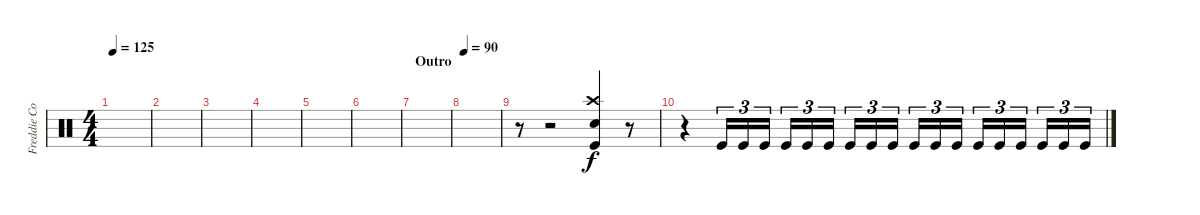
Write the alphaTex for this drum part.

\track ("Freddie Coury - Outro" "Freddie Co") {instrument percussion}
\staff {score}
\articulation defaults
\ts (4 4)
\tempo 125
\clef neutral
\ks c
|
|
|
|
|
|
\section ("" "Outro")
|
\tempo 90
|
r.8 r.2 ("Snare (hit) 2" "Crash high (hit)" "Kick (hit)").4 r.8 |
r.4 "Kick (hit)".16{tu (3 2)} "Kick (hit)".16{tu (3 2)} "Kick (hit)".16{tu (3 2)} "Kick (hit)".16{tu (3 2)} "Kick (hit)".16{tu (3 2)} "Kick (hit)".16{tu (3 2)} "Kick (hit)".16{tu (3 2)} "Kick (hit)".16{tu (3 2)} "Kick (hit)".16{tu (3 2)} "Kick (hit)".16{tu (3 2)} "Kick (hit)".16{tu (3 2)} "Kick (hit)".16{tu (3 2)} "Kick (hit)".16{tu (3 2)} "Kick (hit)".16{tu (3 2)} "Kick (hit)".16{tu (3 2)} "Kick (hit)".16{tu (3 2)} "Kick (hit)".16{tu (3 2)} "Kick (hit)".16{tu (3 2)}
